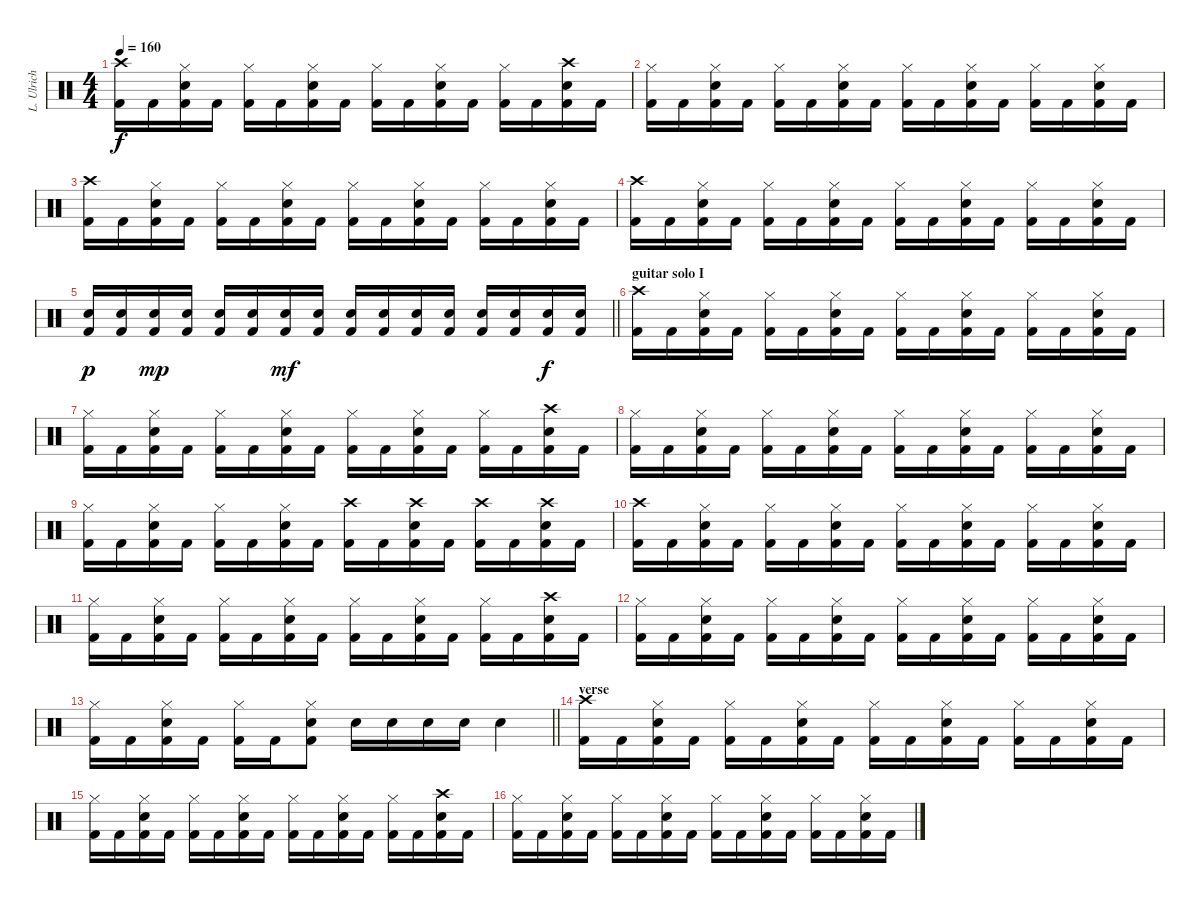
\track ("L. Ulrich - Drums" "L. Ulrich ") {instrument percussion}
\staff {score}
\articulation defaults
\ts (4 4)
\tempo 160
\clef neutral
\ks c
("Crash high (hit)" "Kick (hit) 2").16{dy f} "Kick (hit) 2".16 ("Hi-Hat (closed)" "Snare (hit) 2" "Kick (hit) 2").16 "Kick (hit) 2".16 ("Hi-Hat (closed)" "Kick (hit) 2").16 "Kick (hit) 2".16 ("Hi-Hat (closed)" "Snare (hit) 2" "Kick (hit) 2").16 "Kick (hit) 2".16 ("Hi-Hat (closed)" "Kick (hit) 2").16 "Kick (hit) 2".16 ("Hi-Hat (closed)" "Snare (hit) 2" "Kick (hit) 2").16 "Kick (hit) 2".16 ("Hi-Hat (closed)" "Kick (hit) 2").16 "Kick (hit) 2".16 ("Crash high (hit)" "Snare (hit) 2" "Kick (hit) 2").16 "Kick (hit) 2".16 |
("Hi-Hat (closed)" "Kick (hit) 2").16 "Kick (hit) 2".16 ("Hi-Hat (closed)" "Snare (hit) 2" "Kick (hit) 2").16 "Kick (hit) 2".16 ("Hi-Hat (closed)" "Kick (hit) 2").16 "Kick (hit) 2".16 ("Hi-Hat (closed)" "Snare (hit) 2" "Kick (hit) 2").16 "Kick (hit) 2".16 ("Hi-Hat (closed)" "Kick (hit) 2").16 "Kick (hit) 2".16 ("Hi-Hat (closed)" "Snare (hit) 2" "Kick (hit) 2").16 "Kick (hit) 2".16 ("Hi-Hat (closed)" "Kick (hit) 2").16 "Kick (hit) 2".16 ("Hi-Hat (closed)" "Snare (hit) 2" "Kick (hit) 2").16 "Kick (hit) 2".16 |
("Crash high (hit)" "Kick (hit) 2").16 "Kick (hit) 2".16 ("Hi-Hat (closed)" "Snare (hit) 2" "Kick (hit) 2").16 "Kick (hit) 2".16 ("Hi-Hat (closed)" "Kick (hit) 2").16 "Kick (hit) 2".16 ("Hi-Hat (closed)" "Snare (hit) 2" "Kick (hit) 2").16 "Kick (hit) 2".16 ("Hi-Hat (closed)" "Kick (hit) 2").16 "Kick (hit) 2".16 ("Hi-Hat (closed)" "Snare (hit) 2" "Kick (hit) 2").16 "Kick (hit) 2".16 ("Hi-Hat (closed)" "Kick (hit) 2").16 "Kick (hit) 2".16 ("Hi-Hat (closed)" "Snare (hit) 2" "Kick (hit) 2").16 "Kick (hit) 2".16 |
("Crash high (hit)" "Kick (hit) 2").16 "Kick (hit) 2".16 ("Hi-Hat (closed)" "Snare (hit) 2" "Kick (hit) 2").16 "Kick (hit) 2".16 ("Hi-Hat (closed)" "Kick (hit) 2").16 "Kick (hit) 2".16 ("Hi-Hat (closed)" "Snare (hit) 2" "Kick (hit) 2").16 "Kick (hit) 2".16 ("Hi-Hat (closed)" "Kick (hit) 2").16 "Kick (hit) 2".16 ("Hi-Hat (closed)" "Snare (hit) 2" "Kick (hit) 2").16 "Kick (hit) 2".16 ("Hi-Hat (closed)" "Kick (hit) 2").16 "Kick (hit) 2".16 ("Hi-Hat (closed)" "Snare (hit) 2" "Kick (hit) 2").16 "Kick (hit) 2".16 |
\barLineRight lightlight
("Snare (hit) 2" "Kick (hit) 2").16{dy p} ("Snare (hit) 2" "Kick (hit) 2").16 ("Snare (hit) 2" "Kick (hit) 2").16{dy mp} ("Snare (hit) 2" "Kick (hit) 2").16 ("Snare (hit) 2" "Kick (hit) 2").16 ("Snare (hit) 2" "Kick (hit) 2").16 ("Snare (hit) 2" "Kick (hit) 2").16{dy mf} ("Snare (hit) 2" "Kick (hit) 2").16 ("Snare (hit) 2" "Kick (hit) 2").16 ("Snare (hit) 2" "Kick (hit) 2").16 ("Snare (hit) 2" "Kick (hit) 2").16 ("Snare (hit) 2" "Kick (hit) 2").16 ("Snare (hit) 2" "Kick (hit) 2").16 ("Snare (hit) 2" "Kick (hit) 2").16 ("Snare (hit) 2" "Kick (hit) 2").16{dy f} ("Snare (hit) 2" "Kick (hit) 2").16 |
\section ("" "guitar solo I")
("Crash high (hit)" "Kick (hit) 2").16 "Kick (hit) 2".16 ("Hi-Hat (closed)" "Snare (hit) 2" "Kick (hit) 2").16 "Kick (hit) 2".16 ("Hi-Hat (closed)" "Kick (hit) 2").16 "Kick (hit) 2".16 ("Hi-Hat (closed)" "Snare (hit) 2" "Kick (hit) 2").16 "Kick (hit) 2".16 ("Hi-Hat (closed)" "Kick (hit) 2").16 "Kick (hit) 2".16 ("Hi-Hat (closed)" "Snare (hit) 2" "Kick (hit) 2").16 "Kick (hit) 2".16 ("Hi-Hat (closed)" "Kick (hit) 2").16 "Kick (hit) 2".16 ("Hi-Hat (closed)" "Snare (hit) 2" "Kick (hit) 2").16 "Kick (hit) 2".16 |
("Hi-Hat (closed)" "Kick (hit) 2").16 "Kick (hit) 2".16 ("Hi-Hat (closed)" "Snare (hit) 2" "Kick (hit) 2").16 "Kick (hit) 2".16 ("Hi-Hat (closed)" "Kick (hit) 2").16 "Kick (hit) 2".16 ("Hi-Hat (closed)" "Snare (hit) 2" "Kick (hit) 2").16 "Kick (hit) 2".16 ("Hi-Hat (closed)" "Kick (hit) 2").16 "Kick (hit) 2".16 ("Hi-Hat (closed)" "Snare (hit) 2" "Kick (hit) 2").16 "Kick (hit) 2".16 ("Hi-Hat (closed)" "Kick (hit) 2").16 "Kick (hit) 2".16 ("Crash high (hit)" "Snare (hit) 2" "Kick (hit) 2").16 "Kick (hit) 2".16 |
("Hi-Hat (closed)" "Kick (hit) 2").16 "Kick (hit) 2".16 ("Hi-Hat (closed)" "Snare (hit) 2" "Kick (hit) 2").16 "Kick (hit) 2".16 ("Hi-Hat (closed)" "Kick (hit) 2").16 "Kick (hit) 2".16 ("Hi-Hat (closed)" "Snare (hit) 2" "Kick (hit) 2").16 "Kick (hit) 2".16 ("Hi-Hat (closed)" "Kick (hit) 2").16 "Kick (hit) 2".16 ("Hi-Hat (closed)" "Snare (hit) 2" "Kick (hit) 2").16 "Kick (hit) 2".16 ("Hi-Hat (closed)" "Kick (hit) 2").16 "Kick (hit) 2".16 ("Hi-Hat (closed)" "Snare (hit) 2" "Kick (hit) 2").16 "Kick (hit) 2".16 |
("Hi-Hat (closed)" "Kick (hit) 2").16 "Kick (hit) 2".16 ("Hi-Hat (closed)" "Snare (hit) 2" "Kick (hit) 2").16 "Kick (hit) 2".16 ("Hi-Hat (closed)" "Kick (hit) 2").16 "Kick (hit) 2".16 ("Hi-Hat (closed)" "Snare (hit) 2" "Kick (hit) 2").16 "Kick (hit) 2".16 ("Crash high (hit)" "Kick (hit) 2").16 "Kick (hit) 2".16 ("Crash high (hit)" "Snare (hit) 2" "Kick (hit) 2").16 "Kick (hit) 2".16 ("Crash high (hit)" "Kick (hit) 2").16 "Kick (hit) 2".16 ("Crash high (hit)" "Snare (hit) 2" "Kick (hit) 2").16 "Kick (hit) 2".16 |
("Crash high (hit)" "Kick (hit) 2").16 "Kick (hit) 2".16 ("Hi-Hat (closed)" "Snare (hit) 2" "Kick (hit) 2").16 "Kick (hit) 2".16 ("Hi-Hat (closed)" "Kick (hit) 2").16 "Kick (hit) 2".16 ("Hi-Hat (closed)" "Snare (hit) 2" "Kick (hit) 2").16 "Kick (hit) 2".16 ("Hi-Hat (closed)" "Kick (hit) 2").16 "Kick (hit) 2".16 ("Hi-Hat (closed)" "Snare (hit) 2" "Kick (hit) 2").16 "Kick (hit) 2".16 ("Hi-Hat (closed)" "Kick (hit) 2").16 "Kick (hit) 2".16 ("Hi-Hat (closed)" "Snare (hit) 2" "Kick (hit) 2").16 "Kick (hit) 2".16 |
("Hi-Hat (closed)" "Kick (hit) 2").16 "Kick (hit) 2".16 ("Hi-Hat (closed)" "Snare (hit) 2" "Kick (hit) 2").16 "Kick (hit) 2".16 ("Hi-Hat (closed)" "Kick (hit) 2").16 "Kick (hit) 2".16 ("Hi-Hat (closed)" "Snare (hit) 2" "Kick (hit) 2").16 "Kick (hit) 2".16 ("Hi-Hat (closed)" "Kick (hit) 2").16 "Kick (hit) 2".16 ("Hi-Hat (closed)" "Snare (hit) 2" "Kick (hit) 2").16 "Kick (hit) 2".16 ("Hi-Hat (closed)" "Kick (hit) 2").16 "Kick (hit) 2".16 ("Crash high (hit)" "Snare (hit) 2" "Kick (hit) 2").16 "Kick (hit) 2".16 |
("Hi-Hat (closed)" "Kick (hit) 2").16 "Kick (hit) 2".16 ("Hi-Hat (closed)" "Snare (hit) 2" "Kick (hit) 2").16 "Kick (hit) 2".16 ("Hi-Hat (closed)" "Kick (hit) 2").16 "Kick (hit) 2".16 ("Hi-Hat (closed)" "Snare (hit) 2" "Kick (hit) 2").16 "Kick (hit) 2".16 ("Hi-Hat (closed)" "Kick (hit) 2").16 "Kick (hit) 2".16 ("Hi-Hat (closed)" "Snare (hit) 2" "Kick (hit) 2").16 "Kick (hit) 2".16 ("Hi-Hat (closed)" "Kick (hit) 2").16 "Kick (hit) 2".16 ("Hi-Hat (closed)" "Snare (hit) 2" "Kick (hit) 2").16 "Kick (hit) 2".16 |
\barLineRight lightlight
("Hi-Hat (closed)" "Kick (hit) 2").16 "Kick (hit) 2".16 ("Hi-Hat (closed)" "Snare (hit) 2" "Kick (hit) 2").16 "Kick (hit) 2".16 ("Hi-Hat (closed)" "Kick (hit) 2").16 "Kick (hit) 2".16 ("Hi-Hat (closed)" "Snare (hit) 2" "Kick (hit) 2").8 "Snare (hit) 2".16 "Snare (hit) 2".16 "Snare (hit) 2".16 "Snare (hit) 2".16 "Snare (hit) 2".4 |
\section ("" "verse")
("Crash high (hit)" "Kick (hit) 2").16 "Kick (hit) 2".16 ("Hi-Hat (closed)" "Snare (hit) 2" "Kick (hit) 2").16 "Kick (hit) 2".16 ("Hi-Hat (closed)" "Kick (hit) 2").16 "Kick (hit) 2".16 ("Hi-Hat (closed)" "Snare (hit) 2" "Kick (hit) 2").16 "Kick (hit) 2".16 ("Hi-Hat (closed)" "Kick (hit) 2").16 "Kick (hit) 2".16 ("Hi-Hat (closed)" "Snare (hit) 2" "Kick (hit) 2").16 "Kick (hit) 2".16 ("Hi-Hat (closed)" "Kick (hit) 2").16 "Kick (hit) 2".16 ("Hi-Hat (closed)" "Snare (hit) 2" "Kick (hit) 2").16 "Kick (hit) 2".16 |
("Hi-Hat (closed)" "Kick (hit) 2").16 "Kick (hit) 2".16 ("Hi-Hat (closed)" "Snare (hit) 2" "Kick (hit) 2").16 "Kick (hit) 2".16 ("Hi-Hat (closed)" "Kick (hit) 2").16 "Kick (hit) 2".16 ("Hi-Hat (closed)" "Snare (hit) 2" "Kick (hit) 2").16 "Kick (hit) 2".16 ("Hi-Hat (closed)" "Kick (hit) 2").16 "Kick (hit) 2".16 ("Hi-Hat (closed)" "Snare (hit) 2" "Kick (hit) 2").16 "Kick (hit) 2".16 ("Hi-Hat (closed)" "Kick (hit) 2").16 "Kick (hit) 2".16 ("Crash high (hit)" "Snare (hit) 2" "Kick (hit) 2").16 "Kick (hit) 2".16 |
("Hi-Hat (closed)" "Kick (hit) 2").16 "Kick (hit) 2".16 ("Hi-Hat (closed)" "Snare (hit) 2" "Kick (hit) 2").16 "Kick (hit) 2".16 ("Hi-Hat (closed)" "Kick (hit) 2").16 "Kick (hit) 2".16 ("Hi-Hat (closed)" "Snare (hit) 2" "Kick (hit) 2").16 "Kick (hit) 2".16 ("Hi-Hat (closed)" "Kick (hit) 2").16 "Kick (hit) 2".16 ("Hi-Hat (closed)" "Snare (hit) 2" "Kick (hit) 2").16 "Kick (hit) 2".16 ("Hi-Hat (closed)" "Kick (hit) 2").16 "Kick (hit) 2".16 ("Hi-Hat (closed)" "Snare (hit) 2" "Kick (hit) 2").16 "Kick (hit) 2".16
